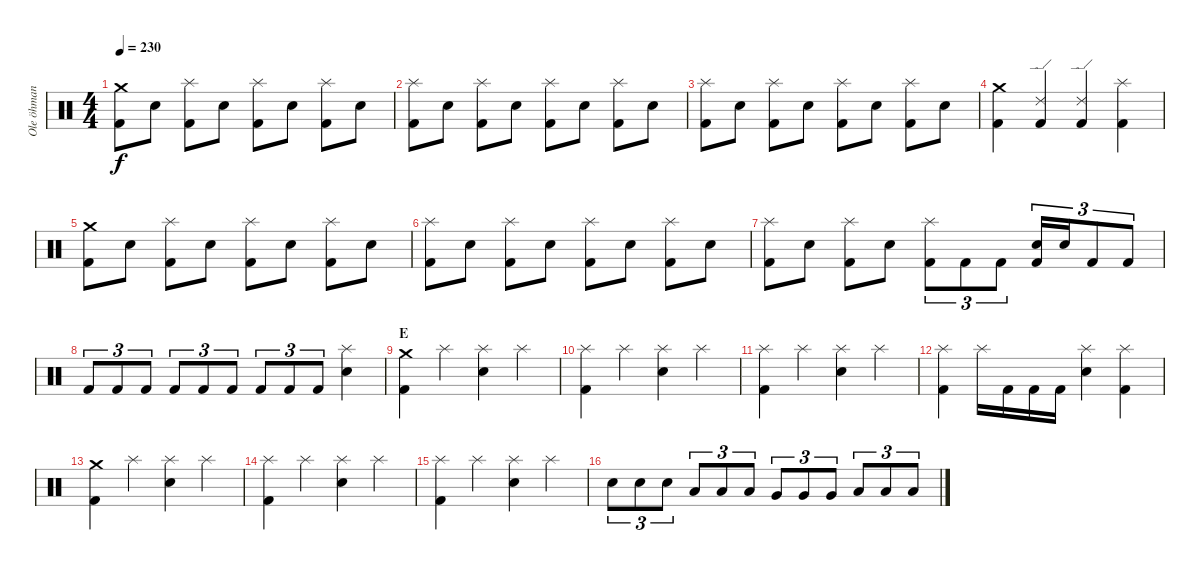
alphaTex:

\track ("Ole öhman" "Ole öhman") {instrument percussion}
\staff {score}
\articulation defaults
\ts (4 4)
\tempo 230
\clef neutral
\ks c
("Crash medium (hit)" "Kick (hit) 2").8{dy f} "Electric Snare (hit)".8 ("Splash (hit)" "Kick (hit) 2").8 "Electric Snare (hit)".8 ("Splash (hit)" "Kick (hit) 2").8 "Electric Snare (hit)".8 ("Splash (hit)" "Kick (hit) 2").8 "Electric Snare (hit)".8 |
("Splash (hit)" "Kick (hit) 2").8 "Electric Snare (hit)".8 ("Splash (hit)" "Kick (hit) 2").8 "Electric Snare (hit)".8 ("Splash (hit)" "Kick (hit) 2").8 "Electric Snare (hit)".8 ("Splash (hit)" "Kick (hit) 2").8 "Electric Snare (hit)".8 |
("Splash (hit)" "Kick (hit) 2").8 "Electric Snare (hit)".8 ("Splash (hit)" "Kick (hit) 2").8 "Electric Snare (hit)".8 ("Splash (hit)" "Kick (hit) 2").8 "Electric Snare (hit)".8 ("Splash (hit)" "Kick (hit) 2").8 "Electric Snare (hit)".8 |
("Crash medium (hit)" "Kick (hit) 2").4 ("Ride (edge) 2" "Kick (hit) 2").4 ("Ride (edge) 2" "Kick (hit) 2").4 ("Splash (hit)" "Kick (hit) 2").4 |
("Crash medium (hit)" "Kick (hit) 2").8 "Electric Snare (hit)".8 ("Splash (hit)" "Kick (hit) 2").8 "Electric Snare (hit)".8 ("Splash (hit)" "Kick (hit) 2").8 "Electric Snare (hit)".8 ("Splash (hit)" "Kick (hit) 2").8 "Electric Snare (hit)".8 |
("Splash (hit)" "Kick (hit) 2").8 "Electric Snare (hit)".8 ("Splash (hit)" "Kick (hit) 2").8 "Electric Snare (hit)".8 ("Splash (hit)" "Kick (hit) 2").8 "Electric Snare (hit)".8 ("Splash (hit)" "Kick (hit) 2").8 "Electric Snare (hit)".8 |
("Splash (hit)" "Kick (hit) 2").8 "Electric Snare (hit)".8 ("Splash (hit)" "Kick (hit) 2").8 "Electric Snare (hit)".8 ("Splash (hit)" "Kick (hit) 2").8{tu (3 2)} "Kick (hit) 2".8{tu (3 2)} "Kick (hit) 2".8{tu (3 2)} ("Electric Snare (hit)" "Kick (hit) 2").16{tu (3 2)} "Electric Snare (hit)".16{tu (3 2)} "Kick (hit) 2".8{tu (3 2)} "Kick (hit) 2".8{tu (3 2)} |
"Kick (hit) 2".8{tu (3 2)} "Kick (hit) 2".8{tu (3 2)} "Kick (hit) 2".8{tu (3 2)} "Kick (hit) 2".8{tu (3 2)} "Kick (hit) 2".8{tu (3 2)} "Kick (hit) 2".8{tu (3 2)} "Kick (hit) 2".8{tu (3 2)} "Kick (hit) 2".8{tu (3 2)} "Kick (hit) 2".8{tu (3 2)} ("Splash (hit)" "Electric Snare (hit)").4 |
\section ("" "E")
("Crash medium (hit)" "Kick (hit) 2").4 "Splash (hit)".4 ("Splash (hit)" "Electric Snare (hit)").4 "Splash (hit)".4 |
("Splash (hit)" "Kick (hit) 2").4 "Splash (hit)".4 ("Splash (hit)" "Electric Snare (hit)").4 "Splash (hit)".4 |
("Splash (hit)" "Kick (hit) 2").4 "Splash (hit)".4 ("Splash (hit)" "Electric Snare (hit)").4 "Splash (hit)".4 |
("Splash (hit)" "Kick (hit) 2").4 "Splash (hit)".16 "Kick (hit) 2".16 "Kick (hit) 2".16 "Kick (hit) 2".16 ("Splash (hit)" "Electric Snare (hit)").4 ("Splash (hit)" "Kick (hit) 2").4 |
("Crash medium (hit)" "Kick (hit) 2").4 "Splash (hit)".4 ("Splash (hit)" "Electric Snare (hit)").4 "Splash (hit)".4 |
("Splash (hit)" "Kick (hit) 2").4 "Splash (hit)".4 ("Splash (hit)" "Electric Snare (hit)").4 "Splash (hit)".4 |
("Splash (hit)" "Kick (hit) 2").4 "Splash (hit)".4 ("Splash (hit)" "Electric Snare (hit)").4 "Splash (hit)".4 |
"Electric Snare (hit)".8{tu (3 2)} "Electric Snare (hit)".8{tu (3 2)} "Electric Snare (hit)".8{tu (3 2)} "Low Tom (hit)".8{tu (3 2)} "Low Tom (hit)".8{tu (3 2)} "Low Tom (hit)".8{tu (3 2)} "Very Low Tom (hit)".8{tu (3 2)} "Very Low Tom (hit)".8{tu (3 2)} "Very Low Tom (hit)".8{tu (3 2)} "Low Floor Tom (hit)".8{tu (3 2)} "Low Floor Tom (hit)".8{tu (3 2)} "Low Floor Tom (hit)".8{tu (3 2)}
